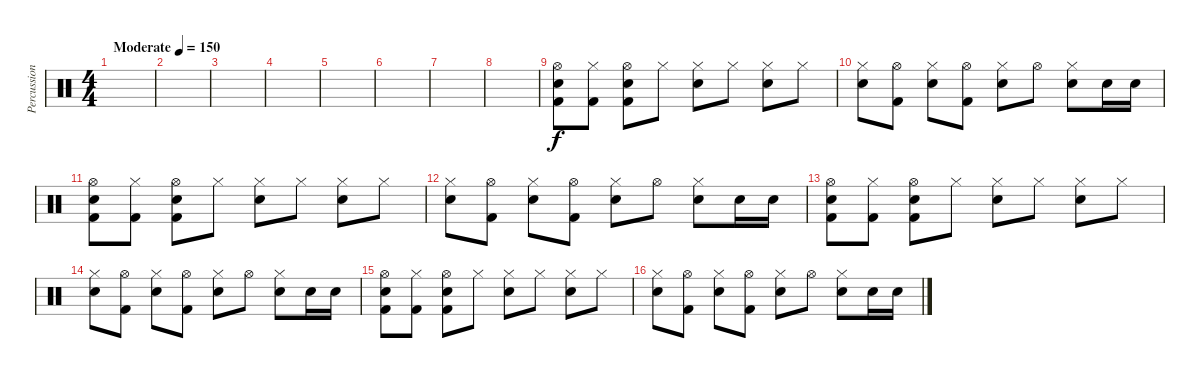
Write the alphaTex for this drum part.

\track ("Percussion" "Percussion") {instrument percussion}
\staff {score}
\articulation defaults
\ts (4 4)
\tempo (150 "Moderate")
\clef neutral
\ks c
|
|
|
|
|
|
|
|
("Hi-Hat (open)" "Snare (hit) 2" "Kick (hit) 2").8 ("Hi-Hat (closed)" "Kick (hit) 2").8 ("Hi-Hat (open)" "Snare (hit) 2" "Kick (hit) 2").8 "Hi-Hat (closed)".8 ("Hi-Hat (closed)" "Snare (hit) 2").8 "Hi-Hat (closed)".8 ("Hi-Hat (closed)" "Snare (hit) 2").8 "Hi-Hat (closed)".8 |
("Hi-Hat (closed)" "Snare (hit) 2").8 ("Hi-Hat (open)" "Kick (hit) 2").8 ("Hi-Hat (closed)" "Snare (hit) 2").8 ("Hi-Hat (open)" "Kick (hit) 2").8 ("Hi-Hat (closed)" "Snare (hit) 2").8 "Hi-Hat (open)".8 ("Hi-Hat (closed)" "Snare (hit) 2").8 "Snare (hit) 2".16 "Snare (hit) 2".16 |
("Hi-Hat (open)" "Snare (hit) 2" "Kick (hit) 2").8 ("Hi-Hat (closed)" "Kick (hit) 2").8 ("Hi-Hat (open)" "Snare (hit) 2" "Kick (hit) 2").8 "Hi-Hat (closed)".8 ("Hi-Hat (closed)" "Snare (hit) 2").8 "Hi-Hat (closed)".8 ("Hi-Hat (closed)" "Snare (hit) 2").8 "Hi-Hat (closed)".8 |
("Hi-Hat (closed)" "Snare (hit) 2").8 ("Hi-Hat (open)" "Kick (hit) 2").8 ("Hi-Hat (closed)" "Snare (hit) 2").8 ("Hi-Hat (open)" "Kick (hit) 2").8 ("Hi-Hat (closed)" "Snare (hit) 2").8 "Hi-Hat (open)".8 ("Hi-Hat (closed)" "Snare (hit) 2").8 "Snare (hit) 2".16 "Snare (hit) 2".16 |
("Hi-Hat (open)" "Snare (hit) 2" "Kick (hit) 2").8 ("Hi-Hat (closed)" "Kick (hit) 2").8 ("Hi-Hat (open)" "Snare (hit) 2" "Kick (hit) 2").8 "Hi-Hat (closed)".8 ("Hi-Hat (closed)" "Snare (hit) 2").8 "Hi-Hat (closed)".8 ("Hi-Hat (closed)" "Snare (hit) 2").8 "Hi-Hat (closed)".8 |
("Hi-Hat (closed)" "Snare (hit) 2").8 ("Hi-Hat (open)" "Kick (hit) 2").8 ("Hi-Hat (closed)" "Snare (hit) 2").8 ("Hi-Hat (open)" "Kick (hit) 2").8 ("Hi-Hat (closed)" "Snare (hit) 2").8 "Hi-Hat (open)".8 ("Hi-Hat (closed)" "Snare (hit) 2").8 "Snare (hit) 2".16 "Snare (hit) 2".16 |
("Hi-Hat (open)" "Snare (hit) 2" "Kick (hit) 2").8 ("Hi-Hat (closed)" "Kick (hit) 2").8 ("Hi-Hat (open)" "Snare (hit) 2" "Kick (hit) 2").8 "Hi-Hat (closed)".8 ("Hi-Hat (closed)" "Snare (hit) 2").8 "Hi-Hat (closed)".8 ("Hi-Hat (closed)" "Snare (hit) 2").8 "Hi-Hat (closed)".8 |
("Hi-Hat (closed)" "Snare (hit) 2").8 ("Hi-Hat (open)" "Kick (hit) 2").8 ("Hi-Hat (closed)" "Snare (hit) 2").8 ("Hi-Hat (open)" "Kick (hit) 2").8 ("Hi-Hat (closed)" "Snare (hit) 2").8 "Hi-Hat (open)".8 ("Hi-Hat (closed)" "Snare (hit) 2").8 "Snare (hit) 2".16 "Snare (hit) 2".16
